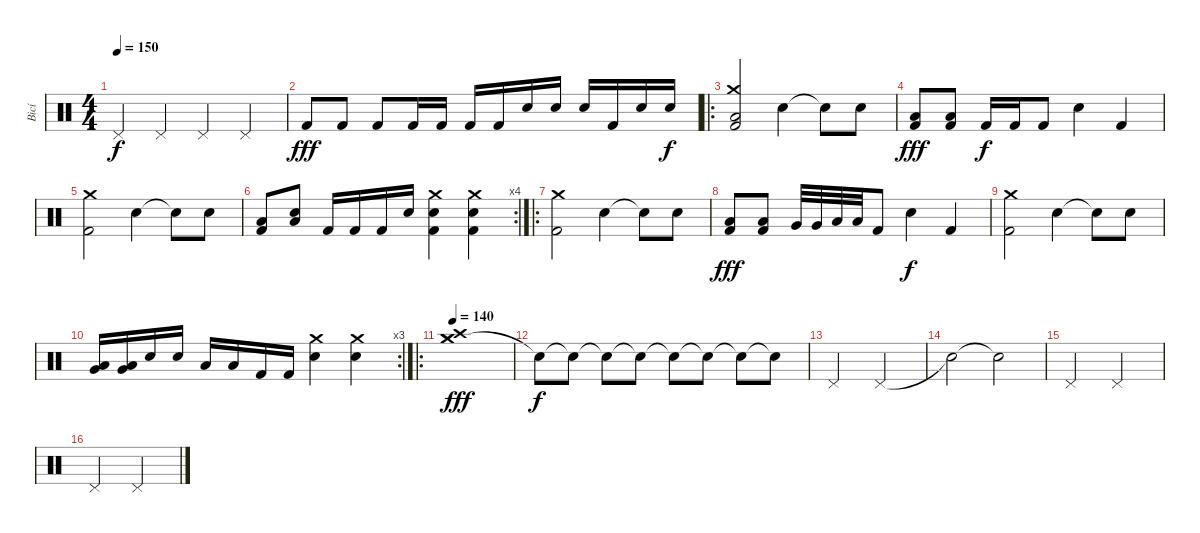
\track ("Bicí" "Bicí") {instrument percussion}
\staff {score}
\articulation defaults
\ts (4 4)
\tempo 150
\clef neutral
\ks c "Pedal Hi-Hat (hit)".4{dy f} "Pedal Hi-Hat (hit)".4 "Pedal Hi-Hat (hit)".4 "Pedal Hi-Hat (hit)".4
|
"Kick (hit) 2".8{dy fff} "Kick (hit) 2".8 "Kick (hit) 2".8 "Kick (hit) 2".16 "Kick (hit) 2".16 "Kick (hit) 2".16 "Kick (hit) 2".16 "Electric Snare (hit)".16 "Electric Snare (hit)".16 "Electric Snare (hit)".16 "Kick (hit) 2".16 "Electric Snare (hit)".16 "Electric Snare (hit)".16{dy f} |
\ro
("Crash medium (hit)" "Kick (hit) 2" "Low Floor Tom (hit)").2 "Electric Snare (hit)".4 "Snare (hit)"{t}.8 "Electric Snare (hit)".8 |
("Kick (hit) 2" "Low Floor Tom (hit)").8{dy fff} ("Kick (hit) 2" "Low Floor Tom (hit)").8 "Kick (hit) 2".16{dy f} "Kick (hit) 2".16 "Kick (hit) 2".8 "Electric Snare (hit)".4 "Kick (hit) 2".4 |
("Crash medium (hit)" "Kick (hit) 2").2 "Electric Snare (hit)".4 "Snare (hit)"{t}.8 "Electric Snare (hit)".8 |
\rc 4
("Low Floor Tom (hit)" "Kick (hit) 2").8 ("Low Floor Tom (hit)" "Electric Snare (hit)").8 "Kick (hit) 2".16 "Kick (hit) 2".16 "Kick (hit) 2".16 "Electric Snare (hit)".16 ("Kick (hit) 2" "Crash medium (hit)" "Electric Snare (hit)").4 ("Kick (hit) 2" "Crash medium (hit)" "Electric Snare (hit)").4 |
\ro
("Crash medium (hit)" "Kick (hit) 2").2 "Electric Snare (hit)".4 "Snare (hit)"{t}.8 "Electric Snare (hit)".8 |
("Kick (hit) 2" "Low Floor Tom (hit)").8{dy fff} ("Kick (hit) 2" "Low Floor Tom (hit)").8 "Very Low Tom (hit)".32 "Very Low Tom (hit)".32 "Low Floor Tom (hit)".32 "Low Floor Tom (hit)".32 "Kick (hit) 2".8 "Electric Snare (hit)".4{dy f} "Kick (hit) 2".4 |
("Crash medium (hit)" "Kick (hit) 2").2 "Electric Snare (hit)".4 "Snare (hit)"{t}.8 "Electric Snare (hit)".8 |
\rc 3
("Low Floor Tom (hit)" "Very Low Tom (hit)").16 ("Low Floor Tom (hit)" "Very Low Tom (hit)").16 "Electric Snare (hit)".16 "Electric Snare (hit)".16 "Low Floor Tom (hit)".16 "Low Floor Tom (hit)".16 "Kick (hit) 2".16 "Kick (hit) 2".16 ("Crash medium (hit)" "Electric Snare (hit)").4 ("Crash medium (hit)" "Electric Snare (hit)").4 |
\ro
\tempo 140
("Crash medium (hit)" "Crash medium (hit)" "Crash high (hit)").1{dy fff} |
"Snare (hit)"{t}.8{dy f} "Snare (hit)"{t}.8 "Snare (hit)"{t}.8 "Snare (hit)"{t}.8 "Snare (hit)"{t}.8 "Snare (hit)"{t}.8 "Snare (hit)"{t}.8 "Snare (hit)"{t}.8 |
"Pedal Hi-Hat (hit)".2 "Pedal Hi-Hat (hit)".2 |
"Snare (hit)"{t}.2 "Snare (hit)"{t}.2 |
"Pedal Hi-Hat (hit)".2 "Pedal Hi-Hat (hit)".2 |
"Pedal Hi-Hat (hit)".2 "Pedal Hi-Hat (hit)".2
